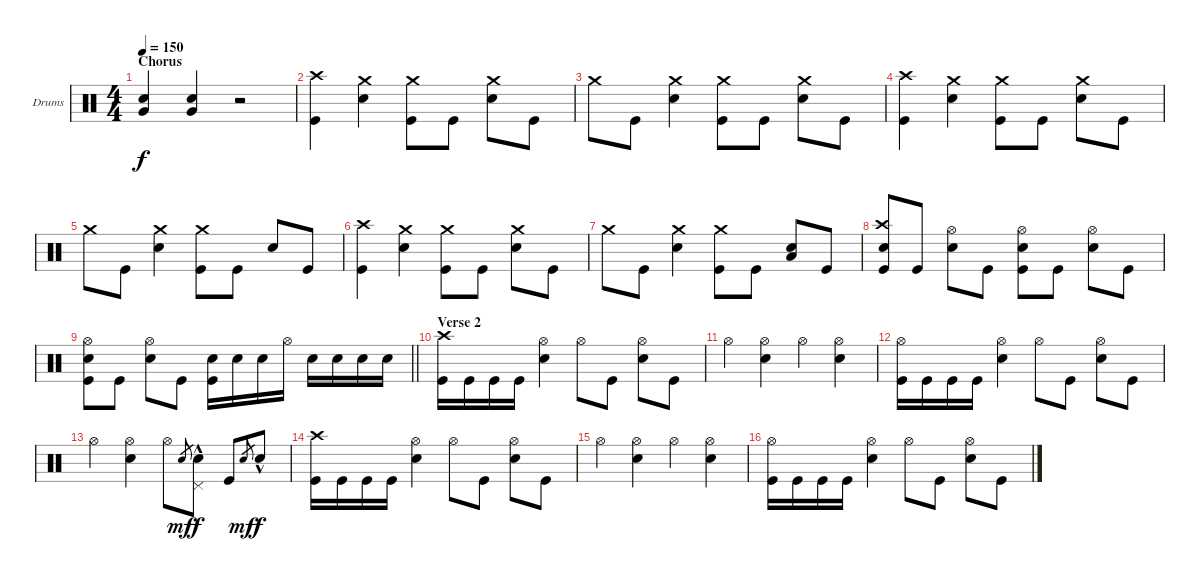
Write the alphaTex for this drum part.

\bracketExtendMode groupsimilarinstruments
\firstSystemTrackNameOrientation horizontal
\otherSystemsTrackNameOrientation horizontal
\track ("Drumkit" "Drums") {instrument percussion}
\staff {score}
\articulation defaults
\ts (4 4)
\section ("" "Chorus")
\tempo 150
\clef neutral
\ks c
("Snare (hit) 2" "Very Low Tom (hit)").4{dy f} ("Snare (hit) 2" "Very Low Tom (hit)").4 r.2 |
("Crash high (hit)" "Kick (hit)").4 ("Crash medium (hit)" "Snare (hit) 2").4 ("Crash medium (hit)" "Kick (hit)").8 "Kick (hit)".8 ("Crash medium (hit)" "Snare (hit) 2").8 "Kick (hit)".8 |
"Crash medium (hit)".8 "Kick (hit)".8 ("Crash medium (hit)" "Snare (hit) 2").4 ("Crash medium (hit)" "Kick (hit)").8 "Kick (hit)".8 ("Crash medium (hit)" "Snare (hit) 2").8 "Kick (hit)".8 |
("Crash high (hit)" "Kick (hit)").4 ("Crash medium (hit)" "Snare (hit) 2").4 ("Crash medium (hit)" "Kick (hit)").8 "Kick (hit)".8 ("Crash medium (hit)" "Snare (hit) 2").8 "Kick (hit)".8 |
"Crash medium (hit)".8 "Kick (hit)".8 ("Crash medium (hit)" "Snare (hit) 2").4 ("Crash medium (hit)" "Kick (hit)").8 "Kick (hit)".8 "Snare (hit) 2".8 "Kick (hit)".8 |
("Crash high (hit)" "Kick (hit)").4 ("Crash medium (hit)" "Snare (hit) 2").4 ("Crash medium (hit)" "Kick (hit)").8 "Kick (hit)".8 ("Crash medium (hit)" "Snare (hit) 2").8 "Kick (hit)".8 |
"Crash medium (hit)".8 "Kick (hit)".8 ("Crash medium (hit)" "Snare (hit) 2").4 ("Crash medium (hit)" "Kick (hit)").8 "Kick (hit)".8 ("Snare (hit) 2" "Low Tom (hit)").8 "Kick (hit)".8 |
("Crash high (hit)" "Snare (hit) 2" "Kick (hit)").8 "Kick (hit)".8 ("Hi-Hat (open)" "Snare (hit) 2").8 "Kick (hit)".8 ("Hi-Hat (open)" "Snare (hit) 2" "Kick (hit)").8 "Kick (hit)".8 ("Hi-Hat (open)" "Snare (hit) 2").8 "Kick (hit)".8 |
\barLineRight lightlight
("Hi-Hat (open)" "Snare (hit) 2" "Kick (hit)").8 "Kick (hit)".8 ("Hi-Hat (open)" "Snare (hit) 2").8 "Kick (hit)".8 ("Snare (hit) 2" "Kick (hit)").16 "Snare (hit) 2".16 "Snare (hit) 2".16 "Hi-Hat (open)".16 "Snare (hit) 2".16 "Snare (hit) 2".16 "Snare (hit) 2".16 "Snare (hit) 2".16 |
\section ("" "Verse 2")
("Crash high (hit)" "Kick (hit)").16 "Kick (hit)".16 "Kick (hit)".16 "Kick (hit)".16 ("Hi-Hat (open)" "Snare (hit) 2").4 "Hi-Hat (open)".8 "Kick (hit)".8 ("Hi-Hat (open)" "Snare (hit) 2").8 "Kick (hit)".8 |
"Hi-Hat (open)".4 ("Hi-Hat (open)" "Snare (hit) 2").4 "Hi-Hat (open)".4 ("Hi-Hat (open)" "Snare (hit) 2").4 |
("Hi-Hat (open)" "Kick (hit)").16 "Kick (hit)".16 "Kick (hit)".16 "Kick (hit)".16 ("Hi-Hat (open)" "Snare (hit) 2").4 "Hi-Hat (open)".8 "Kick (hit)".8 ("Hi-Hat (open)" "Snare (hit) 2").8 "Kick (hit)".8 |
"Hi-Hat (open)".4 ("Hi-Hat (open)" "Snare (hit) 2").4 "Hi-Hat (open)".8 "Snare (hit) 2".8{gr dy mf} ("Snare (hit) 2"{hac} "Pedal Hi-Hat (hit)").8{dy f} "Kick (hit)".8 "Snare (hit) 2".8{gr dy mf} "Snare (hit) 2"{hac}.8{dy f} |
("Crash high (hit)" "Kick (hit)").16 "Kick (hit)".16 "Kick (hit)".16 "Kick (hit)".16 ("Hi-Hat (open)" "Snare (hit) 2").4 "Hi-Hat (open)".8 "Kick (hit)".8 ("Hi-Hat (open)" "Snare (hit) 2").8 "Kick (hit)".8 |
"Hi-Hat (open)".4 ("Hi-Hat (open)" "Snare (hit) 2").4 "Hi-Hat (open)".4 ("Hi-Hat (open)" "Snare (hit) 2").4 |
("Hi-Hat (open)" "Kick (hit)").16 "Kick (hit)".16 "Kick (hit)".16 "Kick (hit)".16 ("Hi-Hat (open)" "Snare (hit) 2").4 "Hi-Hat (open)".8 "Kick (hit)".8 ("Hi-Hat (open)" "Snare (hit) 2").8 "Kick (hit)".8
